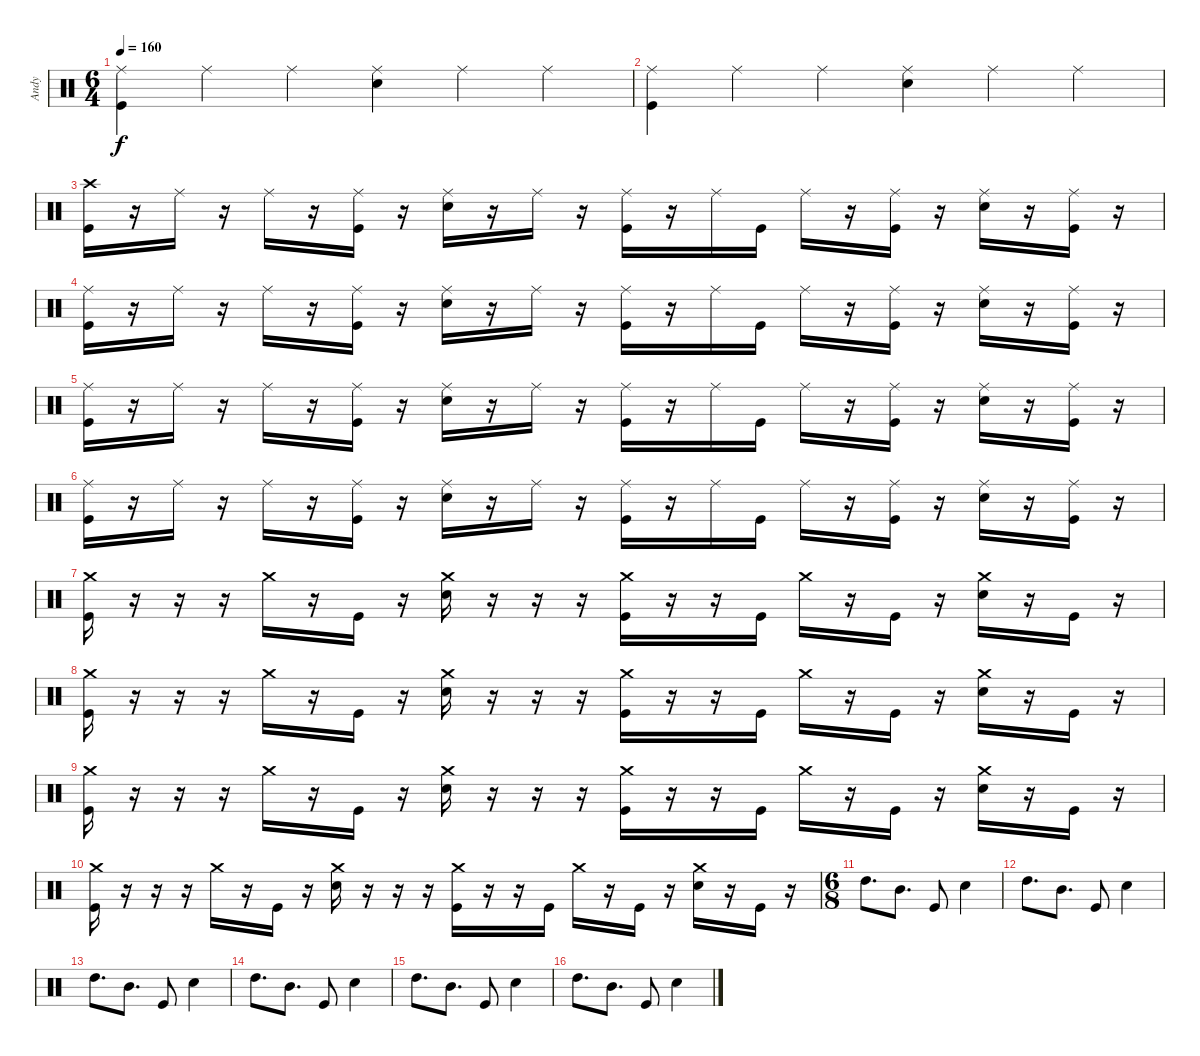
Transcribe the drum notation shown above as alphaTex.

\track ("Andy" "Andy") {instrument percussion}
\staff {score}
\articulation defaults
\ts (6 4)
\tempo 160
\clef neutral
\ks c
("Kick (hit)" "Ride (middle)").4{dy f} "Ride (middle)".4 "Ride (middle)".4 ("Ride (middle)" "Snare (hit) 2").4 "Ride (middle)".4 "Ride (middle)".4 |
("Kick (hit)" "Ride (middle)").4 "Ride (middle)".4 "Ride (middle)".4 ("Ride (middle)" "Snare (hit) 2").4 "Ride (middle)".4 "Ride (middle)".4 |
("Kick (hit)" "Crash high (hit)").16 r.16 "Ride (middle)".16 r.16 "Ride (middle)".16 r.16 ("Ride (middle)" "Kick (hit)").16 r.16 ("Ride (middle)" "Snare (hit) 2").16 r.16 "Ride (middle)".16 r.16 ("Ride (middle)" "Kick (hit)").16 r.16 "Ride (middle)".16 "Kick (hit)".16 "Ride (middle)".16 r.16 ("Ride (middle)" "Kick (hit)").16 r.16 ("Ride (middle)" "Snare (hit) 2").16 r.16 ("Ride (middle)" "Kick (hit)").16 r.16 |
("Kick (hit)" "Ride (middle)").16 r.16 "Ride (middle)".16 r.16 "Ride (middle)".16 r.16 ("Ride (middle)" "Kick (hit)").16 r.16 ("Ride (middle)" "Snare (hit) 2").16 r.16 "Ride (middle)".16 r.16 ("Ride (middle)" "Kick (hit)").16 r.16 "Ride (middle)".16 "Kick (hit)".16 "Ride (middle)".16 r.16 ("Ride (middle)" "Kick (hit)").16 r.16 ("Ride (middle)" "Snare (hit) 2").16 r.16 ("Ride (middle)" "Kick (hit)").16 r.16 |
("Kick (hit)" "Ride (middle)").16 r.16 "Ride (middle)".16 r.16 "Ride (middle)".16 r.16 ("Ride (middle)" "Kick (hit)").16 r.16 ("Ride (middle)" "Snare (hit) 2").16 r.16 "Ride (middle)".16 r.16 ("Ride (middle)" "Kick (hit)").16 r.16 "Ride (middle)".16 "Kick (hit)".16 "Ride (middle)".16 r.16 ("Ride (middle)" "Kick (hit)").16 r.16 ("Ride (middle)" "Snare (hit) 2").16 r.16 ("Ride (middle)" "Kick (hit)").16 r.16 |
("Kick (hit)" "Ride (middle)").16 r.16 "Ride (middle)".16 r.16 "Ride (middle)".16 r.16 ("Ride (middle)" "Kick (hit)").16 r.16 ("Ride (middle)" "Snare (hit) 2").16 r.16 "Ride (middle)".16 r.16 ("Ride (middle)" "Kick (hit)").16 r.16 "Ride (middle)".16 "Kick (hit)".16 "Ride (middle)".16 r.16 ("Ride (middle)" "Kick (hit)").16 r.16 ("Ride (middle)" "Snare (hit) 2").16 r.16 ("Ride (middle)" "Kick (hit)").16 r.16 |
("Kick (hit)" "Crash medium (hit)").16 r.16 r.16 r.16 "Crash medium (hit)".16 r.16 "Kick (hit)".16 r.16 ("Crash medium (hit)" "Snare (hit) 2").16 r.16 r.16 r.16 ("Crash medium (hit)" "Kick (hit)").16 r.16 r.16 "Kick (hit)".16 "Crash medium (hit)".16 r.16 "Kick (hit)".16 r.16 ("Crash medium (hit)" "Snare (hit) 2").16 r.16 "Kick (hit)".16 r.16 |
("Kick (hit)" "Crash medium (hit)").16 r.16 r.16 r.16 "Crash medium (hit)".16 r.16 "Kick (hit)".16 r.16 ("Crash medium (hit)" "Snare (hit) 2").16 r.16 r.16 r.16 ("Crash medium (hit)" "Kick (hit)").16 r.16 r.16 "Kick (hit)".16 "Crash medium (hit)".16 r.16 "Kick (hit)".16 r.16 ("Crash medium (hit)" "Snare (hit) 2").16 r.16 "Kick (hit)".16 r.16 |
("Kick (hit)" "Crash medium (hit)").16 r.16 r.16 r.16 "Crash medium (hit)".16 r.16 "Kick (hit)".16 r.16 ("Crash medium (hit)" "Snare (hit) 2").16 r.16 r.16 r.16 ("Crash medium (hit)" "Kick (hit)").16 r.16 r.16 "Kick (hit)".16 "Crash medium (hit)".16 r.16 "Kick (hit)".16 r.16 ("Crash medium (hit)" "Snare (hit) 2").16 r.16 "Kick (hit)".16 r.16 |
("Kick (hit)" "Crash medium (hit)").16 r.16 r.16 r.16 "Crash medium (hit)".16 r.16 "Kick (hit)".16 r.16 ("Crash medium (hit)" "Snare (hit) 2").16 r.16 r.16 r.16 ("Crash medium (hit)" "Kick (hit)").16 r.16 r.16 "Kick (hit)".16 "Crash medium (hit)".16 r.16 "Kick (hit)".16 r.16 ("Crash medium (hit)" "Snare (hit) 2").16 r.16 "Kick (hit)".16 r.16 |
\ts (6 8)
"High Tom (hit)".8{d} "Mid Tom (hit)".8{d} "Kick (hit)".8 "Snare (hit) 2".4 |
"High Tom (hit)".8{d} "Mid Tom (hit)".8{d} "Kick (hit)".8 "Snare (hit) 2".4 |
"High Tom (hit)".8{d} "Mid Tom (hit)".8{d} "Kick (hit)".8 "Snare (hit) 2".4 |
"High Tom (hit)".8{d} "Mid Tom (hit)".8{d} "Kick (hit)".8 "Snare (hit) 2".4 |
"High Tom (hit)".8{d} "Mid Tom (hit)".8{d} "Kick (hit)".8 "Snare (hit) 2".4 |
"High Tom (hit)".8{d} "Mid Tom (hit)".8{d} "Kick (hit)".8 "Snare (hit) 2".4
